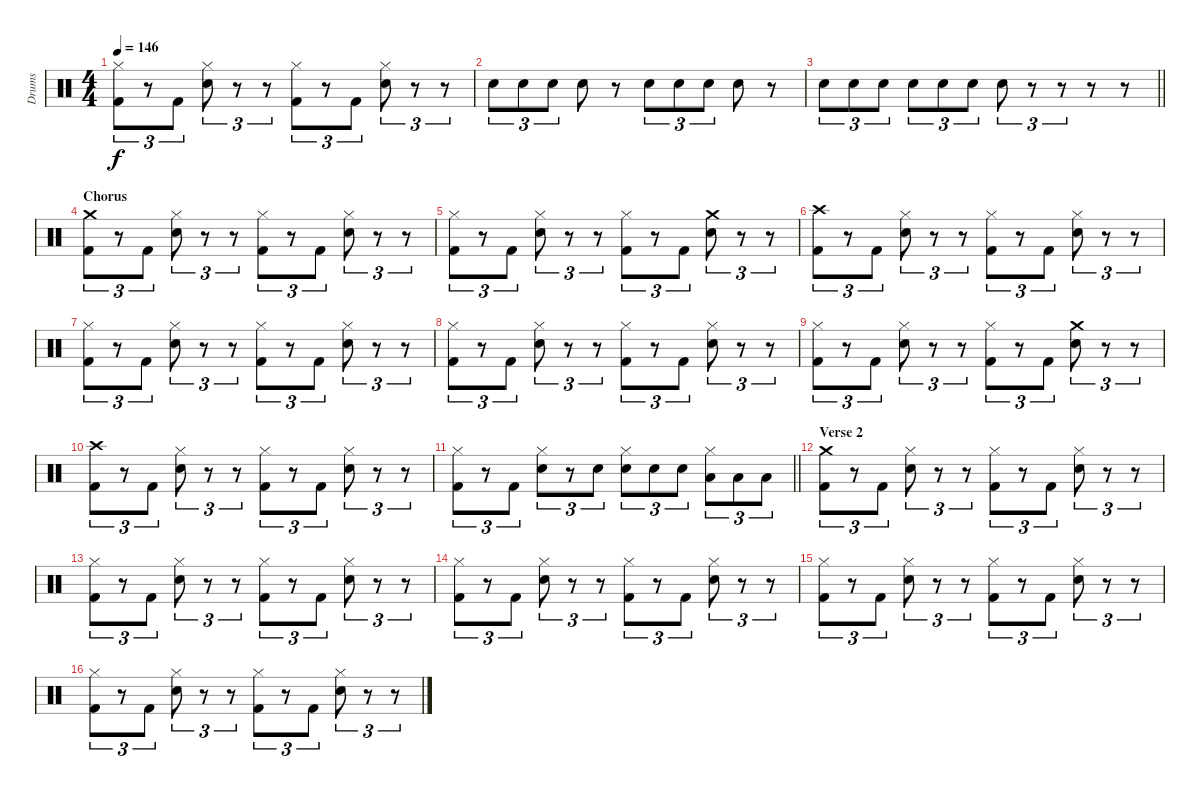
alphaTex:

\track ("Drums" "Drums") {instrument percussion}
\staff {score}
\articulation defaults
\ts (4 4)
\tempo 146
\clef neutral
\ks c
("Hi-Hat (closed)" "Kick (hit) 2").8{tu (3 2) dy f} r.8{tu (3 2)} "Kick (hit) 2".8{tu (3 2)} ("Hi-Hat (closed)" "Snare (hit) 2").8{tu (3 2)} r.8{tu (3 2)} r.8{tu (3 2)} ("Hi-Hat (closed)" "Kick (hit) 2").8{tu (3 2)} r.8{tu (3 2)} "Kick (hit) 2".8{tu (3 2)} ("Hi-Hat (closed)" "Snare (hit) 2").8{tu (3 2)} r.8{tu (3 2)} r.8{tu (3 2)} |
"Snare (hit) 2".8{tu (3 2)} "Snare (hit) 2".8{tu (3 2)} "Snare (hit) 2".8{tu (3 2)} "Snare (hit) 2".8 r.8 "Snare (hit) 2".8{tu (3 2)} "Snare (hit) 2".8{tu (3 2)} "Snare (hit) 2".8{tu (3 2)} "Snare (hit) 2".8 r.8 |
\barLineRight lightlight "Snare (hit) 2".8{tu (3 2)} "Snare (hit) 2".8{tu (3 2)} "Snare (hit) 2".8{tu (3 2)} "Snare (hit) 2".8{tu (3 2)} "Snare (hit) 2".8{tu (3 2)} "Snare (hit) 2".8{tu (3 2)} "Snare (hit) 2".8{tu (3 2)}
r.8{tu (3 2)} r.8{tu (3 2)} r.8 r.8 |
\section ("" "Chorus")
("Crash medium (hit)" "Kick (hit) 2").8{tu (3 2)} r.8{tu (3 2)} "Kick (hit) 2".8{tu (3 2)} ("Hi-Hat (closed)" "Snare (hit) 2").8{tu (3 2)} r.8{tu (3 2)} r.8{tu (3 2)} ("Hi-Hat (closed)" "Kick (hit) 2").8{tu (3 2)} r.8{tu (3 2)} "Kick (hit) 2".8{tu (3 2)} ("Hi-Hat (closed)" "Snare (hit) 2").8{tu (3 2)} r.8{tu (3 2)} r.8{tu (3 2)} |
("Hi-Hat (closed)" "Kick (hit) 2").8{tu (3 2)} r.8{tu (3 2)} "Kick (hit) 2".8{tu (3 2)} ("Hi-Hat (closed)" "Snare (hit) 2").8{tu (3 2)} r.8{tu (3 2)} r.8{tu (3 2)} ("Hi-Hat (closed)" "Kick (hit) 2").8{tu (3 2)} r.8{tu (3 2)} "Kick (hit) 2".8{tu (3 2)} ("Crash medium (hit)" "Snare (hit) 2").8{tu (3 2)} r.8{tu (3 2)} r.8{tu (3 2)} |
("Crash high (hit)" "Kick (hit) 2").8{tu (3 2)} r.8{tu (3 2)} "Kick (hit) 2".8{tu (3 2)} ("Hi-Hat (closed)" "Snare (hit) 2").8{tu (3 2)} r.8{tu (3 2)} r.8{tu (3 2)} ("Hi-Hat (closed)" "Kick (hit) 2").8{tu (3 2)} r.8{tu (3 2)} "Kick (hit) 2".8{tu (3 2)} ("Hi-Hat (closed)" "Snare (hit) 2").8{tu (3 2)} r.8{tu (3 2)} r.8{tu (3 2)} |
("Hi-Hat (closed)" "Kick (hit) 2").8{tu (3 2)} r.8{tu (3 2)} "Kick (hit) 2".8{tu (3 2)} ("Hi-Hat (closed)" "Snare (hit) 2").8{tu (3 2)} r.8{tu (3 2)} r.8{tu (3 2)} ("Hi-Hat (closed)" "Kick (hit) 2").8{tu (3 2)} r.8{tu (3 2)} "Kick (hit) 2".8{tu (3 2)} ("Hi-Hat (closed)" "Snare (hit) 2").8{tu (3 2)} r.8{tu (3 2)} r.8{tu (3 2)} |
("Hi-Hat (closed)" "Kick (hit) 2").8{tu (3 2)} r.8{tu (3 2)} "Kick (hit) 2".8{tu (3 2)} ("Hi-Hat (closed)" "Snare (hit) 2").8{tu (3 2)} r.8{tu (3 2)} r.8{tu (3 2)} ("Hi-Hat (closed)" "Kick (hit) 2").8{tu (3 2)} r.8{tu (3 2)} "Kick (hit) 2".8{tu (3 2)} ("Hi-Hat (closed)" "Snare (hit) 2").8{tu (3 2)} r.8{tu (3 2)} r.8{tu (3 2)} |
("Hi-Hat (closed)" "Kick (hit) 2").8{tu (3 2)} r.8{tu (3 2)} "Kick (hit) 2".8{tu (3 2)} ("Hi-Hat (closed)" "Snare (hit) 2").8{tu (3 2)} r.8{tu (3 2)} r.8{tu (3 2)} ("Hi-Hat (closed)" "Kick (hit) 2").8{tu (3 2)} r.8{tu (3 2)} "Kick (hit) 2".8{tu (3 2)} ("Crash medium (hit)" "Snare (hit) 2").8{tu (3 2)} r.8{tu (3 2)} r.8{tu (3 2)} |
("Crash high (hit)" "Kick (hit) 2").8{tu (3 2)} r.8{tu (3 2)} "Kick (hit) 2".8{tu (3 2)} ("Hi-Hat (closed)" "Snare (hit) 2").8{tu (3 2)} r.8{tu (3 2)} r.8{tu (3 2)} ("Hi-Hat (closed)" "Kick (hit) 2").8{tu (3 2)} r.8{tu (3 2)} "Kick (hit) 2".8{tu (3 2)} ("Hi-Hat (closed)" "Snare (hit) 2").8{tu (3 2)} r.8{tu (3 2)} r.8{tu (3 2)} |
\barLineRight lightlight
("Hi-Hat (closed)" "Kick (hit) 2").8{tu (3 2)} r.8{tu (3 2)} "Kick (hit) 2".8{tu (3 2)} ("Hi-Hat (closed)" "Snare (hit) 2").8{tu (3 2)} r.8{tu (3 2)} "Snare (hit) 2".8{tu (3 2)} ("Hi-Hat (closed)" "Snare (hit) 2").8{tu (3 2)} "Snare (hit) 2".8{tu (3 2)} "Snare (hit) 2".8{tu (3 2)} ("Hi-Hat (closed)" "Low Tom (hit)").8{tu (3 2)} "Low Tom (hit)".8{tu (3 2)} "Low Tom (hit)".8{tu (3 2)} |
\section ("" "Verse 2")
("Crash medium (hit)" "Kick (hit) 2").8{tu (3 2)} r.8{tu (3 2)} "Kick (hit) 2".8{tu (3 2)} ("Hi-Hat (closed)" "Snare (hit) 2").8{tu (3 2)} r.8{tu (3 2)} r.8{tu (3 2)} ("Hi-Hat (closed)" "Kick (hit) 2").8{tu (3 2)} r.8{tu (3 2)} "Kick (hit) 2".8{tu (3 2)} ("Hi-Hat (closed)" "Snare (hit) 2").8{tu (3 2)} r.8{tu (3 2)} r.8{tu (3 2)} |
("Hi-Hat (closed)" "Kick (hit) 2").8{tu (3 2)} r.8{tu (3 2)} "Kick (hit) 2".8{tu (3 2)} ("Hi-Hat (closed)" "Snare (hit) 2").8{tu (3 2)} r.8{tu (3 2)} r.8{tu (3 2)} ("Hi-Hat (closed)" "Kick (hit) 2").8{tu (3 2)} r.8{tu (3 2)} "Kick (hit) 2".8{tu (3 2)} ("Hi-Hat (closed)" "Snare (hit) 2").8{tu (3 2)} r.8{tu (3 2)} r.8{tu (3 2)} |
("Hi-Hat (closed)" "Kick (hit) 2").8{tu (3 2)} r.8{tu (3 2)} "Kick (hit) 2".8{tu (3 2)} ("Hi-Hat (closed)" "Snare (hit) 2").8{tu (3 2)} r.8{tu (3 2)} r.8{tu (3 2)} ("Hi-Hat (closed)" "Kick (hit) 2").8{tu (3 2)} r.8{tu (3 2)} "Kick (hit) 2".8{tu (3 2)} ("Hi-Hat (closed)" "Snare (hit) 2").8{tu (3 2)} r.8{tu (3 2)} r.8{tu (3 2)} |
("Hi-Hat (closed)" "Kick (hit) 2").8{tu (3 2)} r.8{tu (3 2)} "Kick (hit) 2".8{tu (3 2)} ("Hi-Hat (closed)" "Snare (hit) 2").8{tu (3 2)} r.8{tu (3 2)} r.8{tu (3 2)} ("Hi-Hat (closed)" "Kick (hit) 2").8{tu (3 2)} r.8{tu (3 2)} "Kick (hit) 2".8{tu (3 2)} ("Hi-Hat (closed)" "Snare (hit) 2").8{tu (3 2)} r.8{tu (3 2)} r.8{tu (3 2)} |
("Hi-Hat (closed)" "Kick (hit) 2").8{tu (3 2)} r.8{tu (3 2)} "Kick (hit) 2".8{tu (3 2)} ("Hi-Hat (closed)" "Snare (hit) 2").8{tu (3 2)} r.8{tu (3 2)} r.8{tu (3 2)} ("Hi-Hat (closed)" "Kick (hit) 2").8{tu (3 2)} r.8{tu (3 2)} "Kick (hit) 2".8{tu (3 2)} ("Hi-Hat (closed)" "Snare (hit) 2").8{tu (3 2)} r.8{tu (3 2)} r.8{tu (3 2)}
